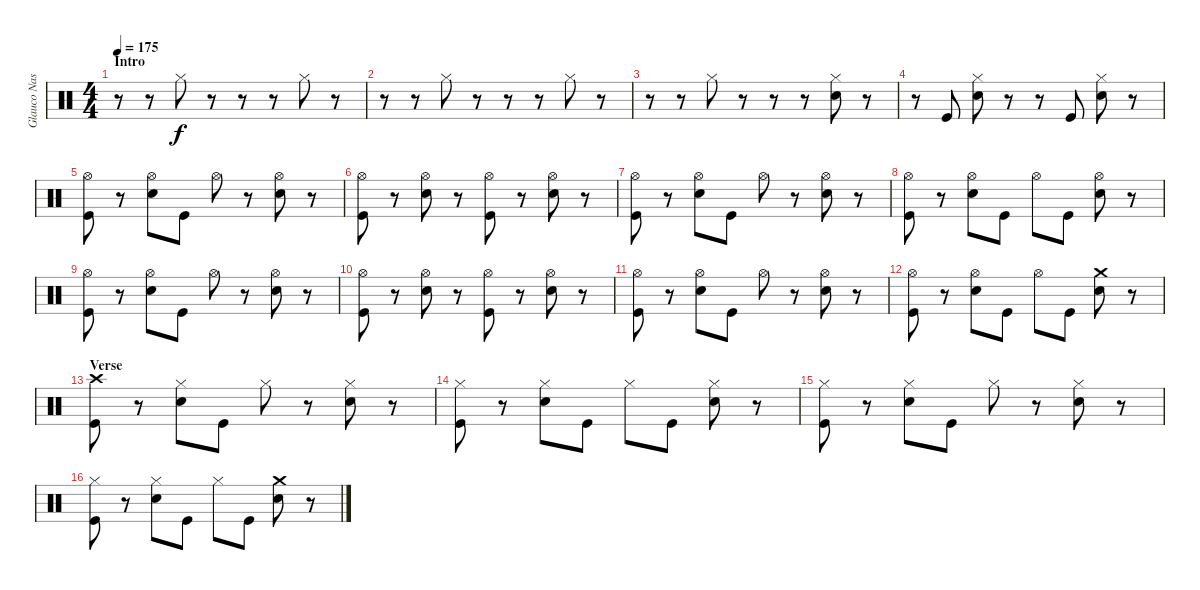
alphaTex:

\track ("Glauco Nastácia" "Glauco Nas") {instrument percussion}
\staff {score}
\articulation defaults
\ts (4 4)
\section ("" "Intro")
\tempo 175
\clef neutral
\ks c
r.8{dy f} r.8 "Hi-Hat (closed)".8 r.8 r.8 r.8 "Hi-Hat (closed)".8 r.8 |
r.8 r.8 "Hi-Hat (closed)".8 r.8 r.8 r.8 "Hi-Hat (closed)".8 r.8 |
r.8 r.8 "Hi-Hat (closed)".8 r.8 r.8 r.8 ("Hi-Hat (closed)" "Electric Snare (hit)").8 r.8 |
r.8 "Kick (hit)".8 ("Hi-Hat (closed)" "Electric Snare (hit)").8 r.8 r.8 "Kick (hit)".8 ("Hi-Hat (closed)" "Electric Snare (hit)").8 r.8 |
("Hi-Hat (open)" "Kick (hit)").8 r.8 ("Hi-Hat (open)" "Electric Snare (hit)").8 "Kick (hit)".8 "Hi-Hat (open)".8 r.8 ("Hi-Hat (open)" "Electric Snare (hit)").8 r.8 |
("Hi-Hat (open)" "Kick (hit)").8 r.8 ("Hi-Hat (open)" "Electric Snare (hit)").8 r.8 ("Hi-Hat (open)" "Kick (hit)").8 r.8 ("Hi-Hat (open)" "Electric Snare (hit)").8 r.8 |
("Hi-Hat (open)" "Kick (hit)").8 r.8 ("Hi-Hat (open)" "Electric Snare (hit)").8 "Kick (hit)".8 "Hi-Hat (open)".8 r.8 ("Hi-Hat (open)" "Electric Snare (hit)").8 r.8 |
("Hi-Hat (open)" "Kick (hit)").8 r.8 ("Hi-Hat (open)" "Electric Snare (hit)").8 "Kick (hit)".8 "Hi-Hat (open)".8 "Kick (hit)".8 ("Hi-Hat (open)" "Electric Snare (hit)").8 r.8 |
("Hi-Hat (open)" "Kick (hit)").8 r.8 ("Hi-Hat (open)" "Electric Snare (hit)").8 "Kick (hit)".8 "Hi-Hat (open)".8 r.8 ("Hi-Hat (open)" "Electric Snare (hit)").8 r.8 |
("Hi-Hat (open)" "Kick (hit)").8 r.8 ("Hi-Hat (open)" "Electric Snare (hit)").8 r.8 ("Hi-Hat (open)" "Kick (hit)").8 r.8 ("Hi-Hat (open)" "Electric Snare (hit)").8 r.8 |
("Hi-Hat (open)" "Kick (hit)").8 r.8 ("Hi-Hat (open)" "Electric Snare (hit)").8 "Kick (hit)".8 "Hi-Hat (open)".8 r.8 ("Hi-Hat (open)" "Electric Snare (hit)").8 r.8 |
("Hi-Hat (open)" "Kick (hit)").8 r.8 ("Hi-Hat (open)" "Electric Snare (hit)").8 "Kick (hit)".8 "Hi-Hat (open)".8 "Kick (hit)".8 ("Crash medium (hit)" "Electric Snare (hit)").8 r.8 |
\section ("" "Verse")
("Crash high (hit)" "Kick (hit)").8 r.8 ("Hi-Hat (closed)" "Electric Snare (hit)").8 "Kick (hit)".8 "Hi-Hat (closed)".8 r.8 ("Hi-Hat (closed)" "Electric Snare (hit)").8 r.8 |
("Hi-Hat (closed)" "Kick (hit)").8 r.8 ("Hi-Hat (closed)" "Electric Snare (hit)").8 "Kick (hit)".8 "Hi-Hat (closed)".8 "Kick (hit)".8 ("Hi-Hat (closed)" "Electric Snare (hit)").8 r.8 |
("Hi-Hat (closed)" "Kick (hit)").8 r.8 ("Hi-Hat (closed)" "Electric Snare (hit)").8 "Kick (hit)".8 "Hi-Hat (closed)".8 r.8 ("Hi-Hat (closed)" "Electric Snare (hit)").8 r.8 |
("Hi-Hat (closed)" "Kick (hit)").8 r.8 ("Hi-Hat (closed)" "Electric Snare (hit)").8 "Kick (hit)".8 "Hi-Hat (closed)".8 "Kick (hit)".8 ("Crash medium (hit)" "Electric Snare (hit)").8 r.8
